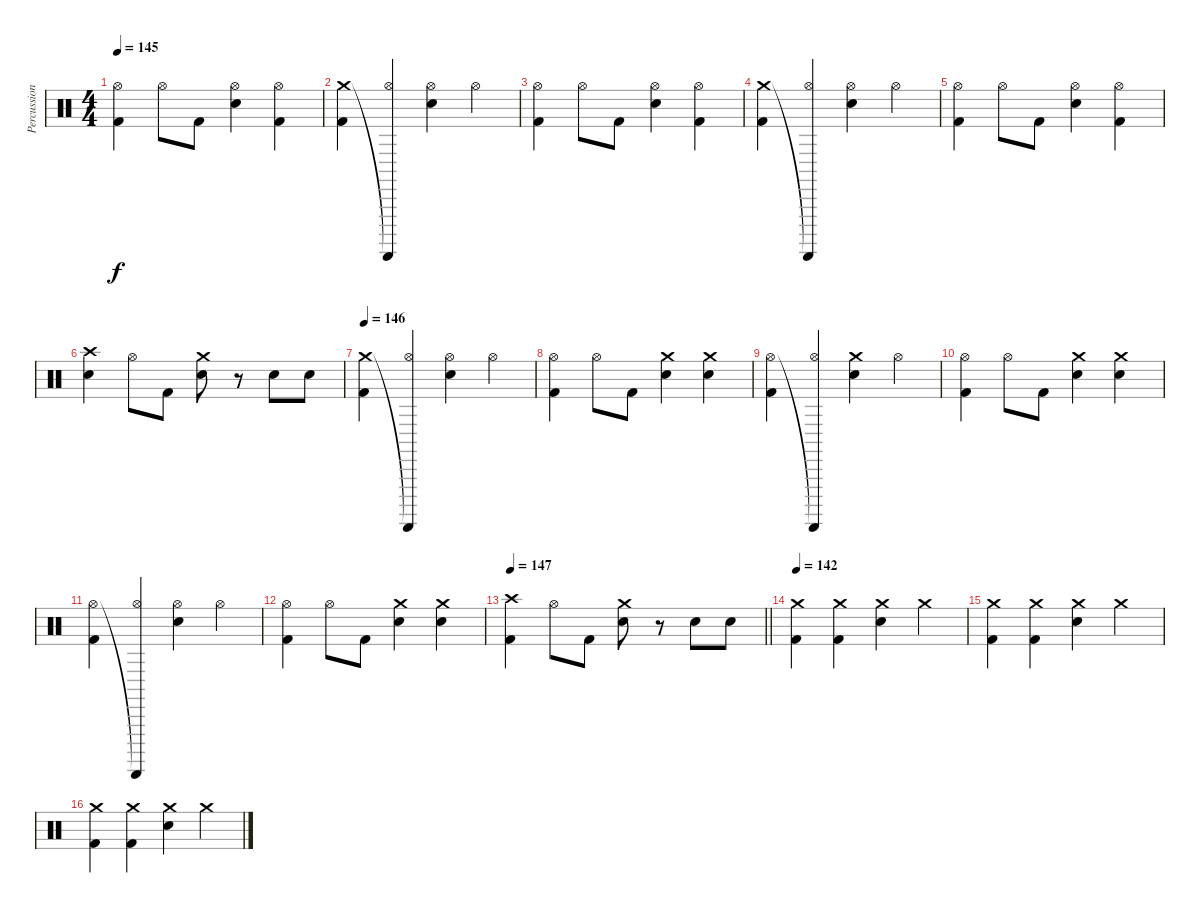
\track ("Percussion" "Percussion") {instrument percussion}
\staff {score}
\articulation defaults
\ts (4 4)
\tempo 145
\clef neutral
\ks c
("Hi-Hat (open)" "Kick (hit) 2").4{dy f} "Hi-Hat (open)".8 "Kick (hit) 2".8 ("Hi-Hat (open)" "Electric Snare (hit)").4 ("Hi-Hat (open)" "Kick (hit) 2").4 |
("Crash medium (hit)" "Kick (hit) 2").4 ("Guiro (scrap-return)"{t} "Hi-Hat (open)").4 ("Hi-Hat (open)" "Electric Snare (hit)").4 "Hi-Hat (open)".4 |
("Hi-Hat (open)" "Kick (hit) 2").4 "Hi-Hat (open)".8 "Kick (hit) 2".8 ("Hi-Hat (open)" "Electric Snare (hit)").4 ("Hi-Hat (open)" "Kick (hit) 2").4 |
("Crash medium (hit)" "Kick (hit) 2").4 ("Guiro (scrap-return)"{t} "Hi-Hat (open)").4 ("Hi-Hat (open)" "Electric Snare (hit)").4 "Hi-Hat (open)".4 |
("Hi-Hat (open)" "Kick (hit) 2").4 "Hi-Hat (open)".8 "Kick (hit) 2".8 ("Hi-Hat (open)" "Electric Snare (hit)").4 ("Hi-Hat (open)" "Kick (hit) 2").4 |
("Crash high (hit)" "Electric Snare (hit)").4 "Hi-Hat (open)".8 "Kick (hit) 2".8 ("Crash medium (hit)" "Electric Snare (hit)").8 r.8 "Electric Snare (hit)".8 "Electric Snare (hit)".8 |
\tempo 146
("Crash medium (hit)" "Kick (hit) 2").4 ("Guiro (scrap-return)"{t} "Hi-Hat (open)").4 ("Hi-Hat (open)" "Electric Snare (hit)").4 "Hi-Hat (open)".4 |
("Hi-Hat (open)" "Kick (hit) 2").4 "Hi-Hat (open)".8 "Kick (hit) 2".8 ("Crash medium (hit)" "Electric Snare (hit)").4 ("Crash medium (hit)" "Electric Snare (hit)").4 |
("Hi-Hat (open)" "Kick (hit) 2").4 ("Guiro (scrap-return)"{t} "Hi-Hat (open)").4 ("Crash medium (hit)" "Electric Snare (hit)").4 "Hi-Hat (open)".4 |
("Hi-Hat (open)" "Kick (hit) 2").4 "Hi-Hat (open)".8 "Kick (hit) 2".8 ("Crash medium (hit)" "Electric Snare (hit)").4 ("Crash medium (hit)" "Electric Snare (hit)").4 |
("Hi-Hat (open)" "Kick (hit) 2").4 ("Guiro (scrap-return)"{t} "Hi-Hat (open)").4 ("Hi-Hat (open)" "Electric Snare (hit)").4 "Hi-Hat (open)".4 |
("Hi-Hat (open)" "Kick (hit) 2").4 "Hi-Hat (open)".8 "Kick (hit) 2".8 ("Crash medium (hit)" "Electric Snare (hit)").4 ("Crash medium (hit)" "Electric Snare (hit)").4 |
\tempo 147
\barLineRight lightlight
("Crash high (hit)" "Kick (hit) 2").4 "Hi-Hat (open)".8 "Kick (hit) 2".8 ("Crash medium (hit)" "Electric Snare (hit)").8 r.8 "Electric Snare (hit)".8 "Electric Snare (hit)".8 |
\tempo 150
\tempo 142
("Crash medium (hit)" "Kick (hit) 2").4 ("Crash medium (hit)" "Kick (hit) 2").4 ("Crash medium (hit)" "Electric Snare (hit)").4 "Crash medium (hit)".4 |
("Crash medium (hit)" "Kick (hit) 2").4 ("Crash medium (hit)" "Kick (hit) 2").4 ("Crash medium (hit)" "Electric Snare (hit)").4 "Crash medium (hit)".4 |
("Crash medium (hit)" "Kick (hit) 2").4 ("Crash medium (hit)" "Kick (hit) 2").4 ("Crash medium (hit)" "Electric Snare (hit)").4 "Crash medium (hit)".4
